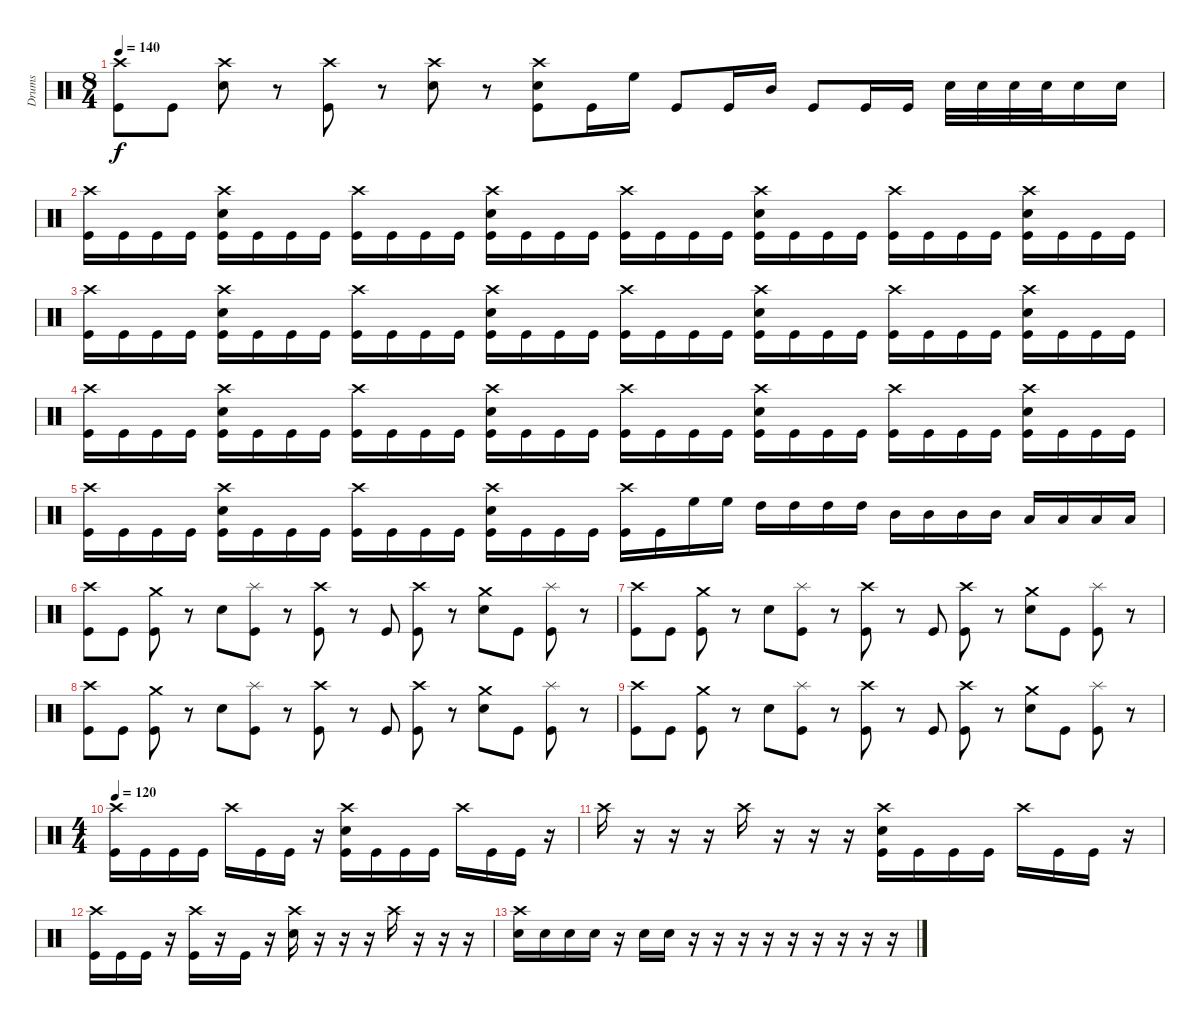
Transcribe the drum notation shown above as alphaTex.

\track ("Drums" "Drums") {instrument percussion}
\staff {score}
\articulation defaults
\ts (8 4)
\tempo 140
\clef neutral
\ks c
("Crash high (hit)" "Kick (hit)").8{dy f} "Kick (hit)".8 ("Crash high (hit)" "Snare (hit) 2").8 r.8 ("Crash high (hit)" "Kick (hit)").8 r.8 ("Crash high (hit)" "Snare (hit) 2").8 r.8 ("Crash high (hit)" "Snare (hit) 2" "Kick (hit)").8 "Kick (hit)".16 "High Floor Tom (hit)".16 "Kick (hit)".8 "Kick (hit)".16 "Mid Tom (hit)".16 "Kick (hit)".8 "Kick (hit)".16 "Kick (hit)".16 "Snare (hit) 2".32 "Snare (hit) 2".32 "Snare (hit) 2".32 "Snare (hit) 2".32 "Snare (hit) 2".16 "Snare (hit) 2".16 |
("Crash high (hit)" "Kick (hit)").16 "Kick (hit)".16 "Kick (hit)".16 "Kick (hit)".16 ("Crash high (hit)" "Snare (hit) 2" "Kick (hit)").16 "Kick (hit)".16 "Kick (hit)".16 "Kick (hit)".16 ("Crash high (hit)" "Kick (hit)").16 "Kick (hit)".16 "Kick (hit)".16 "Kick (hit)".16 ("Crash high (hit)" "Snare (hit) 2" "Kick (hit)").16 "Kick (hit)".16 "Kick (hit)".16 "Kick (hit)".16 ("Crash high (hit)" "Kick (hit)").16 "Kick (hit)".16 "Kick (hit)".16 "Kick (hit)".16 ("Crash high (hit)" "Snare (hit) 2" "Kick (hit)").16 "Kick (hit)".16 "Kick (hit)".16 "Kick (hit)".16 ("Crash high (hit)" "Kick (hit)").16 "Kick (hit)".16 "Kick (hit)".16 "Kick (hit)".16 ("Crash high (hit)" "Snare (hit) 2" "Kick (hit)").16 "Kick (hit)".16 "Kick (hit)".16 "Kick (hit)".16 |
("Crash high (hit)" "Kick (hit)").16 "Kick (hit)".16 "Kick (hit)".16 "Kick (hit)".16 ("Crash high (hit)" "Snare (hit) 2" "Kick (hit)").16 "Kick (hit)".16 "Kick (hit)".16 "Kick (hit)".16 ("Crash high (hit)" "Kick (hit)").16 "Kick (hit)".16 "Kick (hit)".16 "Kick (hit)".16 ("Crash high (hit)" "Snare (hit) 2" "Kick (hit)").16 "Kick (hit)".16 "Kick (hit)".16 "Kick (hit)".16 ("Crash high (hit)" "Kick (hit)").16 "Kick (hit)".16 "Kick (hit)".16 "Kick (hit)".16 ("Crash high (hit)" "Snare (hit) 2" "Kick (hit)").16 "Kick (hit)".16 "Kick (hit)".16 "Kick (hit)".16 ("Crash high (hit)" "Kick (hit)").16 "Kick (hit)".16 "Kick (hit)".16 "Kick (hit)".16 ("Crash high (hit)" "Snare (hit) 2" "Kick (hit)").16 "Kick (hit)".16 "Kick (hit)".16 "Kick (hit)".16 |
("Crash high (hit)" "Kick (hit)").16 "Kick (hit)".16 "Kick (hit)".16 "Kick (hit)".16 ("Crash high (hit)" "Snare (hit) 2" "Kick (hit)").16 "Kick (hit)".16 "Kick (hit)".16 "Kick (hit)".16 ("Crash high (hit)" "Kick (hit)").16 "Kick (hit)".16 "Kick (hit)".16 "Kick (hit)".16 ("Crash high (hit)" "Snare (hit) 2" "Kick (hit)").16 "Kick (hit)".16 "Kick (hit)".16 "Kick (hit)".16 ("Crash high (hit)" "Kick (hit)").16 "Kick (hit)".16 "Kick (hit)".16 "Kick (hit)".16 ("Crash high (hit)" "Snare (hit) 2" "Kick (hit)").16 "Kick (hit)".16 "Kick (hit)".16 "Kick (hit)".16 ("Crash high (hit)" "Kick (hit)").16 "Kick (hit)".16 "Kick (hit)".16 "Kick (hit)".16 ("Crash high (hit)" "Snare (hit) 2" "Kick (hit)").16 "Kick (hit)".16 "Kick (hit)".16 "Kick (hit)".16 |
("Crash high (hit)" "Kick (hit)").16 "Kick (hit)".16 "Kick (hit)".16 "Kick (hit)".16 ("Crash high (hit)" "Snare (hit) 2" "Kick (hit)").16 "Kick (hit)".16 "Kick (hit)".16 "Kick (hit)".16 ("Crash high (hit)" "Kick (hit)").16 "Kick (hit)".16 "Kick (hit)".16 "Kick (hit)".16 ("Crash high (hit)" "Snare (hit) 2" "Kick (hit)").16 "Kick (hit)".16 "Kick (hit)".16 "Kick (hit)".16 ("Crash high (hit)" "Kick (hit)").16 "Kick (hit)".16 "High Floor Tom (hit)".16 "High Floor Tom (hit)".16 "High Tom (hit)".16 "High Tom (hit)".16 "High Tom (hit)".16 "High Tom (hit)".16 "Mid Tom (hit)".16 "Mid Tom (hit)".16 "Mid Tom (hit)".16 "Mid Tom (hit)".16 "Low Tom (hit)".16 "Low Tom (hit)".16 "Low Tom (hit)".16 "Low Tom (hit)".16 |
("Crash high (hit)" "Kick (hit)").8 "Kick (hit)".8 ("Crash medium (hit)" "Kick (hit)").8 r.8 "Snare (hit) 2".8 ("Splash (hit)" "Kick (hit)").8 r.8 ("Crash high (hit)" "Kick (hit)").8 r.8 "Kick (hit)".8 ("Crash high (hit)" "Kick (hit)").8 r.8 ("Crash medium (hit)" "Snare (hit) 2").8 "Kick (hit)".8 ("Splash (hit)" "Kick (hit)").8 r.8 |
("Crash high (hit)" "Kick (hit)").8 "Kick (hit)".8 ("Crash medium (hit)" "Kick (hit)").8 r.8 "Snare (hit) 2".8 ("Splash (hit)" "Kick (hit)").8 r.8 ("Crash high (hit)" "Kick (hit)").8 r.8 "Kick (hit)".8 ("Crash high (hit)" "Kick (hit)").8 r.8 ("Crash medium (hit)" "Snare (hit) 2").8 "Kick (hit)".8 ("Splash (hit)" "Kick (hit)").8 r.8 |
("Crash high (hit)" "Kick (hit)").8 "Kick (hit)".8 ("Crash medium (hit)" "Kick (hit)").8 r.8 "Snare (hit) 2".8 ("Splash (hit)" "Kick (hit)").8 r.8 ("Crash high (hit)" "Kick (hit)").8 r.8 "Kick (hit)".8 ("Crash high (hit)" "Kick (hit)").8 r.8 ("Crash medium (hit)" "Snare (hit) 2").8 "Kick (hit)".8 ("Splash (hit)" "Kick (hit)").8 r.8 |
("Crash high (hit)" "Kick (hit)").8 "Kick (hit)".8 ("Crash medium (hit)" "Kick (hit)").8 r.8 "Snare (hit) 2".8 ("Splash (hit)" "Kick (hit)").8 r.8 ("Crash high (hit)" "Kick (hit)").8 r.8 "Kick (hit)".8 ("Crash high (hit)" "Kick (hit)").8 r.8 ("Crash medium (hit)" "Snare (hit) 2").8 "Kick (hit)".8 ("Splash (hit)" "Kick (hit)").8 r.8 |
\ts (4 4)
\tempo 120
("Crash high (hit)" "Kick (hit)").16 "Kick (hit)".16 "Kick (hit)".16 "Kick (hit)".16 "Crash high (hit)".16 "Kick (hit)".16 "Kick (hit)".16 r.16 ("Crash high (hit)" "Snare (hit) 2" "Kick (hit)").16 "Kick (hit)".16 "Kick (hit)".16 "Kick (hit)".16 "Crash high (hit)".16 "Kick (hit)".16 "Kick (hit)".16 r.16 |
"Crash high (hit)".16 r.16 r.16 r.16 "Crash high (hit)".16 r.16 r.16 r.16 ("Crash high (hit)" "Snare (hit) 2" "Kick (hit)").16 "Kick (hit)".16 "Kick (hit)".16 "Kick (hit)".16 "Crash high (hit)".16 "Kick (hit)".16 "Kick (hit)".16 r.16 |
("Crash high (hit)" "Kick (hit)").16 "Kick (hit)".16 "Kick (hit)".16 r.16 ("Crash high (hit)" "Kick (hit)").16 r.16 "Kick (hit)".16 r.16 ("Crash high (hit)" "Snare (hit) 2").16 r.16 r.16 r.16 "Crash high (hit)".16 r.16 r.16 r.16 |
("Crash high (hit)" "Snare (hit) 2").16 "Snare (hit) 2".16 "Snare (hit) 2".16 "Snare (hit) 2".16 r.16 "Snare (hit) 2".16 "Snare (hit) 2".16 r.16 r.16 r.16 r.16 r.16 r.16 r.16 r.16 r.16
